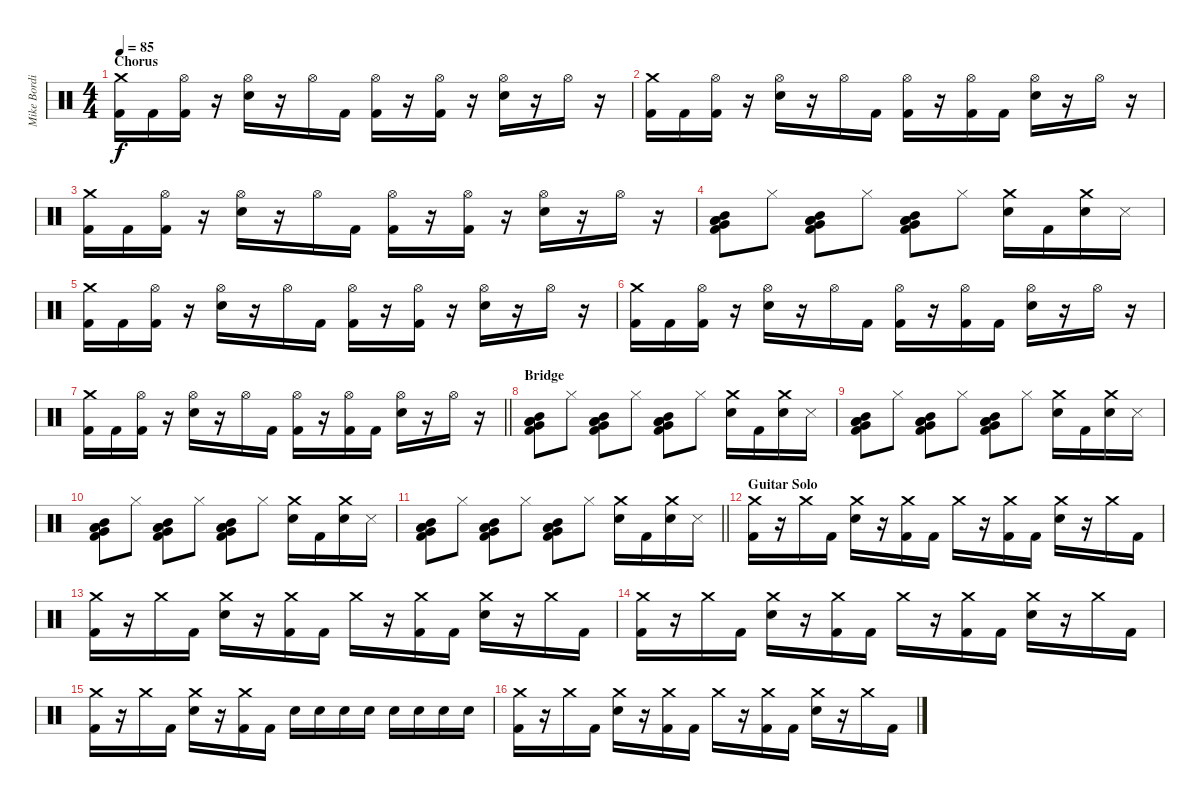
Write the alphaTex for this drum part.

\track ("Mike Bordin (Drums)" "Mike Bordi") {instrument percussion}
\staff {score}
\articulation defaults
\ts (4 4)
\section ("" "Chorus")
\tempo 85
\clef neutral
\ks c
("Crash medium (hit)" "Kick (hit) 2").16{dy f} "Kick (hit) 2".16 ("Hi-Hat (open)" "Kick (hit) 2").16 r.16 ("Hi-Hat (open)" "Snare (hit) 2").16 r.16 "Hi-Hat (open)".16 "Kick (hit) 2".16 ("Hi-Hat (open)" "Kick (hit) 2").16 r.16 ("Hi-Hat (open)" "Kick (hit) 2").16 r.16 ("Hi-Hat (open)" "Snare (hit) 2").16 r.16 "Hi-Hat (open)".16 r.16 |
("Crash medium (hit)" "Kick (hit) 2").16 "Kick (hit) 2".16 ("Hi-Hat (open)" "Kick (hit) 2").16 r.16 ("Hi-Hat (open)" "Snare (hit) 2").16 r.16 "Hi-Hat (open)".16 "Kick (hit) 2".16 ("Hi-Hat (open)" "Kick (hit) 2").16 r.16 ("Hi-Hat (open)" "Kick (hit) 2").16 "Kick (hit) 2".16 ("Hi-Hat (open)" "Snare (hit) 2").16 r.16 "Hi-Hat (open)".16 r.16 |
("Crash medium (hit)" "Kick (hit) 2").16 "Kick (hit) 2".16 ("Hi-Hat (open)" "Kick (hit) 2").16 r.16 ("Hi-Hat (open)" "Snare (hit) 2").16 r.16 "Hi-Hat (open)".16 "Kick (hit) 2".16 ("Hi-Hat (open)" "Kick (hit) 2").16 r.16 ("Hi-Hat (open)" "Kick (hit) 2").16 r.16 ("Hi-Hat (open)" "Snare (hit) 2").16 r.16 "Hi-Hat (open)".16 r.16 |
("Mid Tom (hit)" "Low Floor Tom (hit)" "Very Low Tom (hit)" "Low Tom (hit)" "Kick (hit) 2").8 "Hi-Hat (closed)".8 ("Mid Tom (hit)" "Low Floor Tom (hit)" "Very Low Tom (hit)" "Low Tom (hit)" "Kick (hit) 2").8 "Hi-Hat (closed)".8 ("Mid Tom (hit)" "Low Floor Tom (hit)" "Very Low Tom (hit)" "Low Tom (hit)" "Kick (hit) 2").8 "Hi-Hat (closed)".8 ("Crash medium (hit)" "Snare (hit) 2").16 "Kick (hit) 2".16 ("Crash medium (hit)" "Snare (hit) 2").16 "Snare (side stick) 3".16 |
("Crash medium (hit)" "Kick (hit) 2").16 "Kick (hit) 2".16 ("Hi-Hat (open)" "Kick (hit) 2").16 r.16 ("Hi-Hat (open)" "Snare (hit) 2").16 r.16 "Hi-Hat (open)".16 "Kick (hit) 2".16 ("Hi-Hat (open)" "Kick (hit) 2").16 r.16 ("Hi-Hat (open)" "Kick (hit) 2").16 r.16 ("Hi-Hat (open)" "Snare (hit) 2").16 r.16 "Hi-Hat (open)".16 r.16 |
("Crash medium (hit)" "Kick (hit) 2").16 "Kick (hit) 2".16 ("Hi-Hat (open)" "Kick (hit) 2").16 r.16 ("Hi-Hat (open)" "Snare (hit) 2").16 r.16 "Hi-Hat (open)".16 "Kick (hit) 2".16 ("Hi-Hat (open)" "Kick (hit) 2").16 r.16 ("Hi-Hat (open)" "Kick (hit) 2").16 "Kick (hit) 2".16 ("Hi-Hat (open)" "Snare (hit) 2").16 r.16 "Hi-Hat (open)".16 r.16 |
\barLineRight lightlight
("Crash medium (hit)" "Kick (hit) 2").16 "Kick (hit) 2".16 ("Hi-Hat (open)" "Kick (hit) 2").16 r.16 ("Hi-Hat (open)" "Snare (hit) 2").16 r.16 "Hi-Hat (open)".16 "Kick (hit) 2".16 ("Hi-Hat (open)" "Kick (hit) 2").16 r.16 ("Hi-Hat (open)" "Kick (hit) 2").16 "Kick (hit) 2".16 ("Hi-Hat (open)" "Snare (hit) 2").16 r.16 "Hi-Hat (open)".16 r.16 |
\section ("" "Bridge")
("Mid Tom (hit)" "Low Floor Tom (hit)" "Very Low Tom (hit)" "Low Tom (hit)" "Kick (hit) 2").8 "Hi-Hat (closed)".8 ("Mid Tom (hit)" "Low Floor Tom (hit)" "Very Low Tom (hit)" "Low Tom (hit)" "Kick (hit) 2").8 "Hi-Hat (closed)".8 ("Mid Tom (hit)" "Low Floor Tom (hit)" "Very Low Tom (hit)" "Low Tom (hit)" "Kick (hit) 2").8 "Hi-Hat (closed)".8 ("Crash medium (hit)" "Snare (hit) 2").16 "Kick (hit) 2".16 ("Crash medium (hit)" "Snare (hit) 2").16 "Snare (side stick) 3".16 |
("Mid Tom (hit)" "Low Floor Tom (hit)" "Very Low Tom (hit)" "Low Tom (hit)" "Kick (hit) 2").8 "Hi-Hat (closed)".8 ("Mid Tom (hit)" "Low Floor Tom (hit)" "Very Low Tom (hit)" "Low Tom (hit)" "Kick (hit) 2").8 "Hi-Hat (closed)".8 ("Mid Tom (hit)" "Low Floor Tom (hit)" "Very Low Tom (hit)" "Low Tom (hit)" "Kick (hit) 2").8 "Hi-Hat (closed)".8 ("Crash medium (hit)" "Snare (hit) 2").16 "Kick (hit) 2".16 ("Crash medium (hit)" "Snare (hit) 2").16 "Snare (side stick) 3".16 |
("Mid Tom (hit)" "Low Floor Tom (hit)" "Very Low Tom (hit)" "Low Tom (hit)" "Kick (hit) 2").8 "Hi-Hat (closed)".8 ("Mid Tom (hit)" "Low Floor Tom (hit)" "Very Low Tom (hit)" "Low Tom (hit)" "Kick (hit) 2").8 "Hi-Hat (closed)".8 ("Mid Tom (hit)" "Low Floor Tom (hit)" "Very Low Tom (hit)" "Low Tom (hit)" "Kick (hit) 2").8 "Hi-Hat (closed)".8 ("Crash medium (hit)" "Snare (hit) 2").16 "Kick (hit) 2".16 ("Crash medium (hit)" "Snare (hit) 2").16 "Snare (side stick) 3".16 |
\barLineRight lightlight
("Mid Tom (hit)" "Low Floor Tom (hit)" "Very Low Tom (hit)" "Low Tom (hit)" "Kick (hit) 2").8 "Hi-Hat (closed)".8 ("Mid Tom (hit)" "Low Floor Tom (hit)" "Very Low Tom (hit)" "Low Tom (hit)" "Kick (hit) 2").8 "Hi-Hat (closed)".8 ("Mid Tom (hit)" "Low Floor Tom (hit)" "Very Low Tom (hit)" "Low Tom (hit)" "Kick (hit) 2").8 "Hi-Hat (closed)".8 ("Crash medium (hit)" "Snare (hit) 2").16 "Kick (hit) 2".16 ("Crash medium (hit)" "Snare (hit) 2").16 "Snare (side stick) 3".16 |
\section ("" "Guitar Solo")
("Crash medium (hit)" "Kick (hit) 2").16 r.16 "Crash medium (hit)".16 "Kick (hit) 2".16 ("Crash medium (hit)" "Snare (hit) 2").16 r.16 ("Crash medium (hit)" "Kick (hit) 2").16 "Kick (hit) 2".16 "Crash medium (hit)".16 r.16 ("Crash medium (hit)" "Kick (hit) 2").16 "Kick (hit) 2".16 ("Crash medium (hit)" "Snare (hit) 2").16 r.16 "Crash medium (hit)".16 "Kick (hit) 2".16 |
("Crash medium (hit)" "Kick (hit) 2").16 r.16 "Crash medium (hit)".16 "Kick (hit) 2".16 ("Crash medium (hit)" "Snare (hit) 2").16 r.16 ("Crash medium (hit)" "Kick (hit) 2").16 "Kick (hit) 2".16 "Crash medium (hit)".16 r.16 ("Crash medium (hit)" "Kick (hit) 2").16 "Kick (hit) 2".16 ("Crash medium (hit)" "Snare (hit) 2").16 r.16 "Crash medium (hit)".16 "Kick (hit) 2".16 |
("Crash medium (hit)" "Kick (hit) 2").16 r.16 "Crash medium (hit)".16 "Kick (hit) 2".16 ("Crash medium (hit)" "Snare (hit) 2").16 r.16 ("Crash medium (hit)" "Kick (hit) 2").16 "Kick (hit) 2".16 "Crash medium (hit)".16 r.16 ("Crash medium (hit)" "Kick (hit) 2").16 "Kick (hit) 2".16 ("Crash medium (hit)" "Snare (hit) 2").16 r.16 "Crash medium (hit)".16 "Kick (hit) 2".16 |
("Crash medium (hit)" "Kick (hit) 2").16 r.16 "Crash medium (hit)".16 "Kick (hit) 2".16 ("Crash medium (hit)" "Snare (hit) 2").16 r.16 ("Crash medium (hit)" "Kick (hit) 2").16 "Kick (hit) 2".16 "Snare (hit) 2".16 "Snare (hit) 2".16 "Snare (hit) 2".16 "Snare (hit) 2".16 "Snare (hit) 2".16 "Snare (hit) 2".16 "Snare (hit) 2".16 "Snare (hit) 2".16 |
("Crash medium (hit)" "Kick (hit) 2").16 r.16 "Crash medium (hit)".16 "Kick (hit) 2".16 ("Crash medium (hit)" "Snare (hit) 2").16 r.16 ("Crash medium (hit)" "Kick (hit) 2").16 "Kick (hit) 2".16 "Crash medium (hit)".16 r.16 ("Crash medium (hit)" "Kick (hit) 2").16 "Kick (hit) 2".16 ("Crash medium (hit)" "Snare (hit) 2").16 r.16 "Crash medium (hit)".16 "Kick (hit) 2".16
